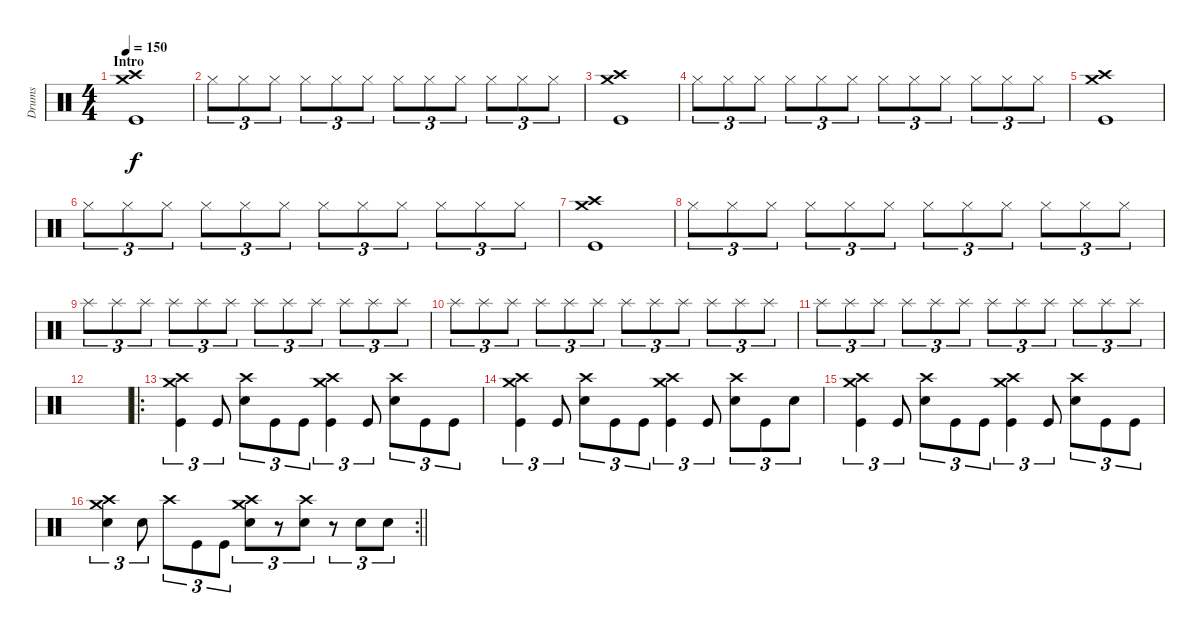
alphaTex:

\track ("Drums" "Drums") {instrument percussion}
\staff {score}
\articulation defaults
\ts (4 4)
\section ("" "Intro")
\tempo 150
\clef neutral
\ks c
("Crash high (hit)" "Crash medium (hit)" "Kick (hit)").1{dy f} |
"Hi-Hat (closed)".8{tu (3 2)} "Hi-Hat (closed)".8{tu (3 2)} "Hi-Hat (closed)".8{tu (3 2)} "Hi-Hat (closed)".8{tu (3 2)} "Hi-Hat (closed)".8{tu (3 2)} "Hi-Hat (closed)".8{tu (3 2)} "Hi-Hat (closed)".8{tu (3 2)} "Hi-Hat (closed)".8{tu (3 2)} "Hi-Hat (closed)".8{tu (3 2)} "Hi-Hat (closed)".8{tu (3 2)} "Hi-Hat (closed)".8{tu (3 2)} "Hi-Hat (closed)".8{tu (3 2)} |
("Crash high (hit)" "Crash medium (hit)" "Kick (hit)").1 |
"Hi-Hat (closed)".8{tu (3 2)} "Hi-Hat (closed)".8{tu (3 2)} "Hi-Hat (closed)".8{tu (3 2)} "Hi-Hat (closed)".8{tu (3 2)} "Hi-Hat (closed)".8{tu (3 2)} "Hi-Hat (closed)".8{tu (3 2)} "Hi-Hat (closed)".8{tu (3 2)} "Hi-Hat (closed)".8{tu (3 2)} "Hi-Hat (closed)".8{tu (3 2)} "Hi-Hat (closed)".8{tu (3 2)} "Hi-Hat (closed)".8{tu (3 2)} "Hi-Hat (closed)".8{tu (3 2)} |
("Crash high (hit)" "Crash medium (hit)" "Kick (hit)").1 |
"Hi-Hat (closed)".8{tu (3 2)} "Hi-Hat (closed)".8{tu (3 2)} "Hi-Hat (closed)".8{tu (3 2)} "Hi-Hat (closed)".8{tu (3 2)} "Hi-Hat (closed)".8{tu (3 2)} "Hi-Hat (closed)".8{tu (3 2)} "Hi-Hat (closed)".8{tu (3 2)} "Hi-Hat (closed)".8{tu (3 2)} "Hi-Hat (closed)".8{tu (3 2)} "Hi-Hat (closed)".8{tu (3 2)} "Hi-Hat (closed)".8{tu (3 2)} "Hi-Hat (closed)".8{tu (3 2)} |
("Crash high (hit)" "Crash medium (hit)" "Kick (hit)").1 |
"Hi-Hat (closed)".8{tu (3 2)} "Hi-Hat (closed)".8{tu (3 2)} "Hi-Hat (closed)".8{tu (3 2)} "Hi-Hat (closed)".8{tu (3 2)} "Hi-Hat (closed)".8{tu (3 2)} "Hi-Hat (closed)".8{tu (3 2)} "Hi-Hat (closed)".8{tu (3 2)} "Hi-Hat (closed)".8{tu (3 2)} "Hi-Hat (closed)".8{tu (3 2)} "Hi-Hat (closed)".8{tu (3 2)} "Hi-Hat (closed)".8{tu (3 2)} "Hi-Hat (closed)".8{tu (3 2)} |
"Splash (hit)".8{tu (3 2)} "Splash (hit)".8{tu (3 2)} "Splash (hit)".8{tu (3 2)} "Splash (hit)".8{tu (3 2)} "Splash (hit)".8{tu (3 2)} "Splash (hit)".8{tu (3 2)} "Splash (hit)".8{tu (3 2)} "Splash (hit)".8{tu (3 2)} "Splash (hit)".8{tu (3 2)} "Splash (hit)".8{tu (3 2)} "Splash (hit)".8{tu (3 2)} "Splash (hit)".8{tu (3 2)} |
"Splash (hit)".8{tu (3 2)} "Splash (hit)".8{tu (3 2)} "Splash (hit)".8{tu (3 2)} "Splash (hit)".8{tu (3 2)} "Splash (hit)".8{tu (3 2)} "Splash (hit)".8{tu (3 2)} "Splash (hit)".8{tu (3 2)} "Splash (hit)".8{tu (3 2)} "Splash (hit)".8{tu (3 2)} "Splash (hit)".8{tu (3 2)} "Splash (hit)".8{tu (3 2)} "Splash (hit)".8{tu (3 2)} |
"Splash (hit)".8{tu (3 2)} "Splash (hit)".8{tu (3 2)} "Splash (hit)".8{tu (3 2)} "Splash (hit)".8{tu (3 2)} "Splash (hit)".8{tu (3 2)} "Splash (hit)".8{tu (3 2)} "Splash (hit)".8{tu (3 2)} "Splash (hit)".8{tu (3 2)} "Splash (hit)".8{tu (3 2)} "Splash (hit)".8{tu (3 2)} "Splash (hit)".8{tu (3 2)} "Splash (hit)".8{tu (3 2)} |
|
\ro
("Crash high (hit)" "Crash medium (hit)" "Kick (hit)").4{tu (3 2)} "Kick (hit)".8{tu (3 2)} ("Crash high (hit)" "Electric Snare (hit)").8{tu (3 2)} "Kick (hit)".8{tu (3 2)} "Kick (hit)".8{tu (3 2)} ("Crash high (hit)" "Crash medium (hit)" "Kick (hit)").4{tu (3 2)} "Kick (hit)".8{tu (3 2)} ("Crash high (hit)" "Electric Snare (hit)").8{tu (3 2)} "Kick (hit)".8{tu (3 2)} "Kick (hit)".8{tu (3 2)} |
("Crash high (hit)" "Crash medium (hit)" "Kick (hit)").4{tu (3 2)} "Kick (hit)".8{tu (3 2)} ("Crash high (hit)" "Electric Snare (hit)").8{tu (3 2)} "Kick (hit)".8{tu (3 2)} "Kick (hit)".8{tu (3 2)} ("Crash high (hit)" "Crash medium (hit)" "Kick (hit)").4{tu (3 2)} "Kick (hit)".8{tu (3 2)} ("Crash high (hit)" "Electric Snare (hit)").8{tu (3 2)} "Kick (hit)".8{tu (3 2)} "Electric Snare (hit)".8{tu (3 2)} |
("Crash high (hit)" "Crash medium (hit)" "Kick (hit)").4{tu (3 2)} "Kick (hit)".8{tu (3 2)} ("Crash high (hit)" "Electric Snare (hit)").8{tu (3 2)} "Kick (hit)".8{tu (3 2)} "Kick (hit)".8{tu (3 2)} ("Crash high (hit)" "Crash medium (hit)" "Kick (hit)").4{tu (3 2)} "Kick (hit)".8{tu (3 2)} ("Crash high (hit)" "Electric Snare (hit)").8{tu (3 2)} "Kick (hit)".8{tu (3 2)} "Kick (hit)".8{tu (3 2)} |
\rc 2
\barLineRight lightlight
("Crash high (hit)" "Crash medium (hit)" "Electric Snare (hit)").4{tu (3 2)} "Electric Snare (hit)".8{tu (3 2)} "Crash high (hit)".8{tu (3 2)} "Kick (hit)".8{tu (3 2)} "Kick (hit)".8{tu (3 2)} ("Crash high (hit)" "Crash medium (hit)" "Electric Snare (hit)").8{tu (3 2)} r.8{tu (3 2)} ("Crash high (hit)" "Electric Snare (hit)").8{tu (3 2)} r.8{tu (3 2)} "Electric Snare (hit)".8{tu (3 2)} "Electric Snare (hit)".8{tu (3 2)}
